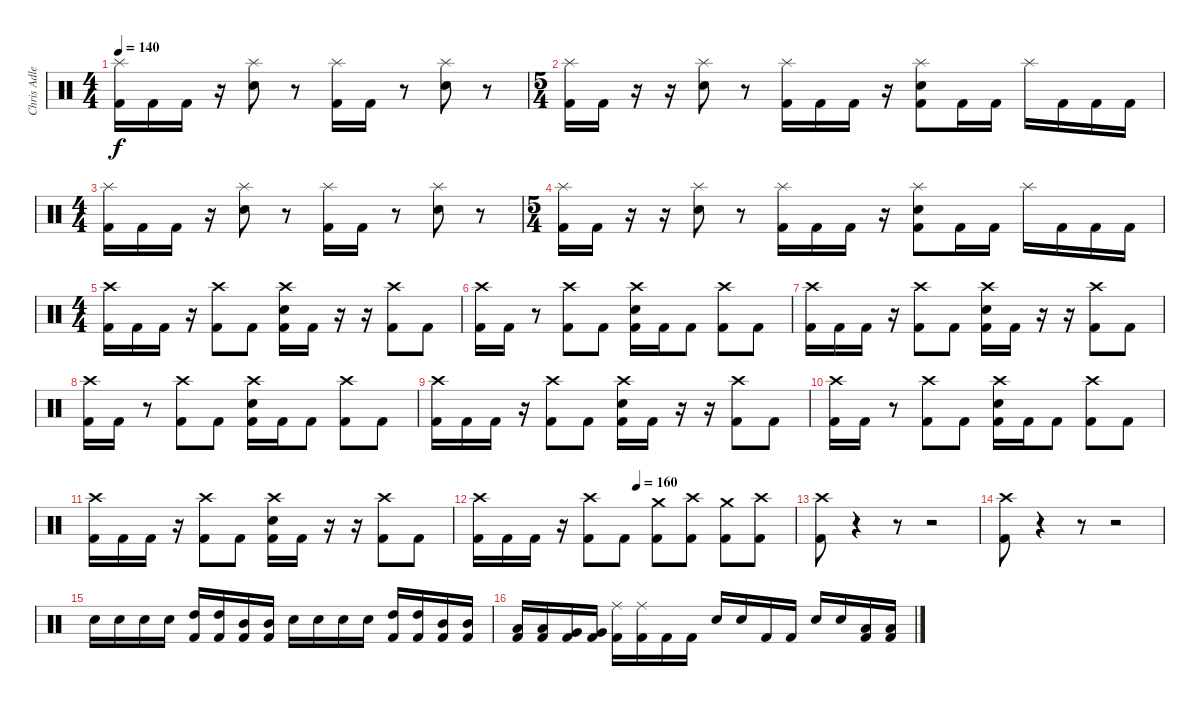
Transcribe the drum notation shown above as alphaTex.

\track ("Chris Adler" "Chris Adle") {instrument percussion}
\staff {score}
\articulation defaults
\ts (4 4)
\tempo 140
\clef neutral
\ks c
("Splash (hit)" "Kick (hit) 2").16{dy f} "Kick (hit) 2".16 "Kick (hit) 2".16 r.16 ("Splash (hit)" "Electric Snare (hit)").8 r.8 ("Splash (hit)" "Kick (hit) 2").16 "Kick (hit) 2".16 r.8 ("Splash (hit)" "Electric Snare (hit)").8 r.8 |
\ts (5 4)
("Splash (hit)" "Kick (hit) 2").16 "Kick (hit) 2".16 r.16 r.16 ("Splash (hit)" "Electric Snare (hit)").8 r.8 ("Splash (hit)" "Kick (hit) 2").16 "Kick (hit) 2".16 "Kick (hit) 2".16 r.16 ("Splash (hit)" "Electric Snare (hit)" "Kick (hit) 2").8 "Kick (hit) 2".16 "Kick (hit) 2".16 "Splash (hit)".16 "Kick (hit) 2".16 "Kick (hit) 2".16 "Kick (hit) 2".16 |
\ts (4 4)
("Splash (hit)" "Kick (hit) 2").16 "Kick (hit) 2".16 "Kick (hit) 2".16 r.16 ("Splash (hit)" "Electric Snare (hit)").8 r.8 ("Splash (hit)" "Kick (hit) 2").16 "Kick (hit) 2".16 r.8 ("Splash (hit)" "Electric Snare (hit)").8 r.8 |
\ts (5 4)
("Splash (hit)" "Kick (hit) 2").16 "Kick (hit) 2".16 r.16 r.16 ("Splash (hit)" "Electric Snare (hit)").8 r.8 ("Splash (hit)" "Kick (hit) 2").16 "Kick (hit) 2".16 "Kick (hit) 2".16 r.16 ("Splash (hit)" "Electric Snare (hit)" "Kick (hit) 2").8 "Kick (hit) 2".16 "Kick (hit) 2".16 "Splash (hit)".16 "Kick (hit) 2".16 "Kick (hit) 2".16 "Kick (hit) 2".16 |
\ts (4 4)
("Crash high (hit)" "Kick (hit) 2").16 "Kick (hit) 2".16 "Kick (hit) 2".16 r.16 ("Crash high (hit)" "Kick (hit) 2").8 "Kick (hit) 2".8 ("Crash high (hit)" "Electric Snare (hit)" "Kick (hit) 2").16 "Kick (hit) 2".16 r.16 r.16 ("Crash high (hit)" "Kick (hit) 2").8 "Kick (hit) 2".8 |
("Crash high (hit)" "Kick (hit) 2").16 "Kick (hit) 2".16 r.8 ("Crash high (hit)" "Kick (hit) 2").8 "Kick (hit) 2".8 ("Crash high (hit)" "Electric Snare (hit)" "Kick (hit) 2").16 "Kick (hit) 2".16 "Kick (hit) 2".8 ("Crash high (hit)" "Kick (hit) 2").8 "Kick (hit) 2".8 |
("Crash high (hit)" "Kick (hit) 2").16 "Kick (hit) 2".16 "Kick (hit) 2".16 r.16 ("Crash high (hit)" "Kick (hit) 2").8 "Kick (hit) 2".8 ("Crash high (hit)" "Electric Snare (hit)" "Kick (hit) 2").16 "Kick (hit) 2".16 r.16 r.16 ("Crash high (hit)" "Kick (hit) 2").8 "Kick (hit) 2".8 |
("Crash high (hit)" "Kick (hit) 2").16 "Kick (hit) 2".16 r.8 ("Crash high (hit)" "Kick (hit) 2").8 "Kick (hit) 2".8 ("Crash high (hit)" "Electric Snare (hit)" "Kick (hit) 2").16 "Kick (hit) 2".16 "Kick (hit) 2".8 ("Crash high (hit)" "Kick (hit) 2").8 "Kick (hit) 2".8 |
("Crash high (hit)" "Kick (hit) 2").16 "Kick (hit) 2".16 "Kick (hit) 2".16 r.16 ("Crash high (hit)" "Kick (hit) 2").8 "Kick (hit) 2".8 ("Crash high (hit)" "Electric Snare (hit)" "Kick (hit) 2").16 "Kick (hit) 2".16 r.16 r.16 ("Crash high (hit)" "Kick (hit) 2").8 "Kick (hit) 2".8 |
("Crash high (hit)" "Kick (hit) 2").16 "Kick (hit) 2".16 r.8 ("Crash high (hit)" "Kick (hit) 2").8 "Kick (hit) 2".8 ("Crash high (hit)" "Electric Snare (hit)" "Kick (hit) 2").16 "Kick (hit) 2".16 "Kick (hit) 2".8 ("Crash high (hit)" "Kick (hit) 2").8 "Kick (hit) 2".8 |
("Crash high (hit)" "Kick (hit) 2").16 "Kick (hit) 2".16 "Kick (hit) 2".16 r.16 ("Crash high (hit)" "Kick (hit) 2").8 "Kick (hit) 2".8 ("Crash high (hit)" "Electric Snare (hit)" "Kick (hit) 2").16 "Kick (hit) 2".16 r.16 r.16 ("Crash high (hit)" "Kick (hit) 2").8 "Kick (hit) 2".8 |
\tempo (160 0.5)
("Crash high (hit)" "Kick (hit) 2").16 "Kick (hit) 2".16 "Kick (hit) 2".16 r.16 ("Crash high (hit)" "Kick (hit) 2").8 "Kick (hit) 2".8 ("Crash medium (hit)" "Kick (hit) 2").8 ("Crash high (hit)" "Kick (hit) 2").8 ("Crash medium (hit)" "Kick (hit) 2").8 ("Crash high (hit)" "Kick (hit) 2").8 |
("Crash high (hit)" "Kick (hit) 2").8 r.4{volume 0} r.8 r.2 |
("Crash high (hit)" "Kick (hit) 2").8{volume 16} r.4{volume 0} r.8 r.2 |
"Electric Snare (hit)".16{volume 16} "Electric Snare (hit)".16 "Electric Snare (hit)".16 "Electric Snare (hit)".16 ("High Tom (hit)" "Kick (hit) 2").16 ("High Tom (hit)" "Kick (hit) 2").16 ("Mid Tom (hit)" "Kick (hit) 2").16 ("Mid Tom (hit)" "Kick (hit) 2").16 "Electric Snare (hit)".16 "Electric Snare (hit)".16 "Electric Snare (hit)".16 "Electric Snare (hit)".16 ("High Tom (hit)" "Kick (hit) 2").16 ("High Tom (hit)" "Kick (hit) 2").16 ("Mid Tom (hit)" "Kick (hit) 2").16 ("Mid Tom (hit)" "Kick (hit) 2").16 |
("Low Tom (hit)" "Kick (hit) 2").16 ("Low Tom (hit)" "Kick (hit) 2").16 ("Very Low Tom (hit)" "Kick (hit) 2").16 ("Very Low Tom (hit)" "Kick (hit) 2").16 ("Ride (middle)" "Kick (hit) 2").16 ("Ride (middle)" "Kick (hit) 2").16 "Kick (hit) 2".16 "Kick (hit) 2".16 "Electric Snare (hit)".16 "Electric Snare (hit)".16 "Kick (hit) 2".16 "Kick (hit) 2".16 "Electric Snare (hit)".16 "Electric Snare (hit)".16 ("Low Tom (hit)" "Kick (hit) 2").16 ("Low Tom (hit)" "Kick (hit) 2").16
